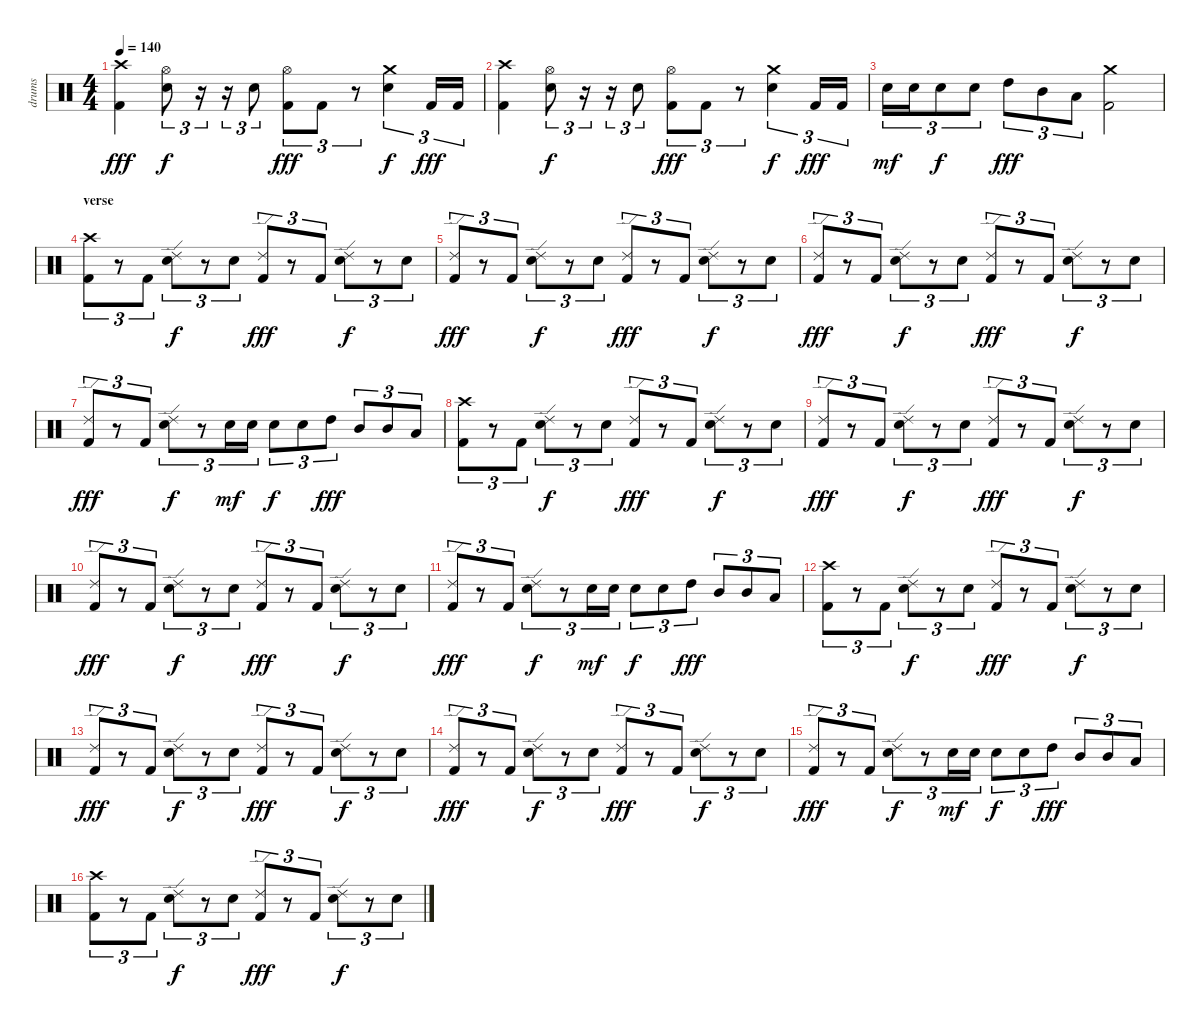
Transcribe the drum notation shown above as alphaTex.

\track ("drums" "drums") {instrument percussion}
\staff {score}
\articulation defaults
\ts (4 4)
\tempo 140
\clef neutral
\ks c
("Crash high (hit)" "Kick (hit) 2").4{dy fff} ("Hi-Hat (open)" "Snare (hit) 2").8{tu (3 2) dy f} r.16{tu (3 2)} r.16{tu (3 2)} "Snare (hit) 2".8{tu (3 2)} ("Hi-Hat (open)" "Kick (hit) 2").8{tu (3 2) dy fff} "Kick (hit) 2".8{tu (3 2)} r.8{tu (3 2)} ("Crash medium (hit)" "Snare (hit) 2").4{tu (3 2) dy f} "Kick (hit) 2".16{tu (3 2) dy fff} "Kick (hit) 2".16{tu (3 2)} |
("Crash high (hit)" "Kick (hit) 2").4 ("Hi-Hat (open)" "Snare (hit) 2").8{tu (3 2) dy f} r.16{tu (3 2)} r.16{tu (3 2)} "Snare (hit) 2".8{tu (3 2)} ("Hi-Hat (open)" "Kick (hit) 2").8{tu (3 2) dy fff} "Kick (hit) 2".8{tu (3 2)} r.8{tu (3 2)} ("Crash medium (hit)" "Snare (hit) 2").4{tu (3 2) dy f} "Kick (hit) 2".16{tu (3 2) dy fff} "Kick (hit) 2".16{tu (3 2)} |
"Snare (hit) 2".16{tu (3 2) dy mf} "Snare (hit) 2".16{tu (3 2)} "Snare (hit) 2".8{tu (3 2) dy f} "Snare (hit) 2".8{tu (3 2)} "High Tom (hit)".8{tu (3 2) dy fff} "Mid Tom (hit)".8{tu (3 2)} "Low Tom (hit)".8{tu (3 2)} ("Crash medium (hit)" "Kick (hit) 2").2 |
\section ("" "verse")
("Crash high (hit)" "Kick (hit) 2").8{tu (3 2)} r.8{tu (3 2)} "Kick (hit) 2".8{tu (3 2)} ("Ride (edge) 2" "Snare (hit) 2").8{tu (3 2) dy f} r.8{tu (3 2)} "Snare (hit) 2".8{tu (3 2)} ("Ride (edge) 2" "Kick (hit) 2").8{tu (3 2) dy fff} r.8{tu (3 2)} "Kick (hit) 2".8{tu (3 2)} ("Ride (edge) 2" "Snare (hit) 2").8{tu (3 2) dy f} r.8{tu (3 2)} "Snare (hit) 2".8{tu (3 2)} |
("Ride (edge) 2" "Kick (hit) 2").8{tu (3 2) dy fff} r.8{tu (3 2)} "Kick (hit) 2".8{tu (3 2)} ("Ride (edge) 2" "Snare (hit) 2").8{tu (3 2) dy f} r.8{tu (3 2)} "Snare (hit) 2".8{tu (3 2)} ("Ride (edge) 2" "Kick (hit) 2").8{tu (3 2) dy fff} r.8{tu (3 2)} "Kick (hit) 2".8{tu (3 2)} ("Ride (edge) 2" "Snare (hit) 2").8{tu (3 2) dy f} r.8{tu (3 2)} "Snare (hit) 2".8{tu (3 2)} |
("Ride (edge) 2" "Kick (hit) 2").8{tu (3 2) dy fff} r.8{tu (3 2)} "Kick (hit) 2".8{tu (3 2)} ("Ride (edge) 2" "Snare (hit) 2").8{tu (3 2) dy f} r.8{tu (3 2)} "Snare (hit) 2".8{tu (3 2)} ("Ride (edge) 2" "Kick (hit) 2").8{tu (3 2) dy fff} r.8{tu (3 2)} "Kick (hit) 2".8{tu (3 2)} ("Ride (edge) 2" "Snare (hit) 2").8{tu (3 2) dy f} r.8{tu (3 2)} "Snare (hit) 2".8{tu (3 2)} |
("Ride (edge) 2" "Kick (hit) 2").8{tu (3 2) dy fff} r.8{tu (3 2)} "Kick (hit) 2".8{tu (3 2)} ("Ride (edge) 2" "Snare (hit) 2").8{tu (3 2) dy f} r.8{tu (3 2)} "Snare (hit) 2".16{tu (3 2) dy mf} "Snare (hit) 2".16{tu (3 2)} "Snare (hit) 2".8{tu (3 2) dy f} "Snare (hit) 2".8{tu (3 2)} "High Tom (hit)".8{tu (3 2) dy fff} "Mid Tom (hit)".8{tu (3 2)} "Mid Tom (hit)".8{tu (3 2)} "Low Tom (hit)".8{tu (3 2)} |
("Crash high (hit)" "Kick (hit) 2").8{tu (3 2)} r.8{tu (3 2)} "Kick (hit) 2".8{tu (3 2)} ("Ride (edge) 2" "Snare (hit) 2").8{tu (3 2) dy f} r.8{tu (3 2)} "Snare (hit) 2".8{tu (3 2)} ("Ride (edge) 2" "Kick (hit) 2").8{tu (3 2) dy fff} r.8{tu (3 2)} "Kick (hit) 2".8{tu (3 2)} ("Ride (edge) 2" "Snare (hit) 2").8{tu (3 2) dy f} r.8{tu (3 2)} "Snare (hit) 2".8{tu (3 2)} |
("Ride (edge) 2" "Kick (hit) 2").8{tu (3 2) dy fff} r.8{tu (3 2)} "Kick (hit) 2".8{tu (3 2)} ("Ride (edge) 2" "Snare (hit) 2").8{tu (3 2) dy f} r.8{tu (3 2)} "Snare (hit) 2".8{tu (3 2)} ("Ride (edge) 2" "Kick (hit) 2").8{tu (3 2) dy fff} r.8{tu (3 2)} "Kick (hit) 2".8{tu (3 2)} ("Ride (edge) 2" "Snare (hit) 2").8{tu (3 2) dy f} r.8{tu (3 2)} "Snare (hit) 2".8{tu (3 2)} |
("Ride (edge) 2" "Kick (hit) 2").8{tu (3 2) dy fff} r.8{tu (3 2)} "Kick (hit) 2".8{tu (3 2)} ("Ride (edge) 2" "Snare (hit) 2").8{tu (3 2) dy f} r.8{tu (3 2)} "Snare (hit) 2".8{tu (3 2)} ("Ride (edge) 2" "Kick (hit) 2").8{tu (3 2) dy fff} r.8{tu (3 2)} "Kick (hit) 2".8{tu (3 2)} ("Ride (edge) 2" "Snare (hit) 2").8{tu (3 2) dy f} r.8{tu (3 2)} "Snare (hit) 2".8{tu (3 2)} |
("Ride (edge) 2" "Kick (hit) 2").8{tu (3 2) dy fff} r.8{tu (3 2)} "Kick (hit) 2".8{tu (3 2)} ("Ride (edge) 2" "Snare (hit) 2").8{tu (3 2) dy f} r.8{tu (3 2)} "Snare (hit) 2".16{tu (3 2) dy mf} "Snare (hit) 2".16{tu (3 2)} "Snare (hit) 2".8{tu (3 2) dy f} "Snare (hit) 2".8{tu (3 2)} "High Tom (hit)".8{tu (3 2) dy fff} "Mid Tom (hit)".8{tu (3 2)} "Mid Tom (hit)".8{tu (3 2)} "Low Tom (hit)".8{tu (3 2)} |
("Crash high (hit)" "Kick (hit) 2").8{tu (3 2)} r.8{tu (3 2)} "Kick (hit) 2".8{tu (3 2)} ("Ride (edge) 2" "Snare (hit) 2").8{tu (3 2) dy f} r.8{tu (3 2)} "Snare (hit) 2".8{tu (3 2)} ("Ride (edge) 2" "Kick (hit) 2").8{tu (3 2) dy fff} r.8{tu (3 2)} "Kick (hit) 2".8{tu (3 2)} ("Ride (edge) 2" "Snare (hit) 2").8{tu (3 2) dy f} r.8{tu (3 2)} "Snare (hit) 2".8{tu (3 2)} |
("Ride (edge) 2" "Kick (hit) 2").8{tu (3 2) dy fff} r.8{tu (3 2)} "Kick (hit) 2".8{tu (3 2)} ("Ride (edge) 2" "Snare (hit) 2").8{tu (3 2) dy f} r.8{tu (3 2)} "Snare (hit) 2".8{tu (3 2)} ("Ride (edge) 2" "Kick (hit) 2").8{tu (3 2) dy fff} r.8{tu (3 2)} "Kick (hit) 2".8{tu (3 2)} ("Ride (edge) 2" "Snare (hit) 2").8{tu (3 2) dy f} r.8{tu (3 2)} "Snare (hit) 2".8{tu (3 2)} |
("Ride (edge) 2" "Kick (hit) 2").8{tu (3 2) dy fff} r.8{tu (3 2)} "Kick (hit) 2".8{tu (3 2)} ("Ride (edge) 2" "Snare (hit) 2").8{tu (3 2) dy f} r.8{tu (3 2)} "Snare (hit) 2".8{tu (3 2)} ("Ride (edge) 2" "Kick (hit) 2").8{tu (3 2) dy fff} r.8{tu (3 2)} "Kick (hit) 2".8{tu (3 2)} ("Ride (edge) 2" "Snare (hit) 2").8{tu (3 2) dy f} r.8{tu (3 2)} "Snare (hit) 2".8{tu (3 2)} |
("Ride (edge) 2" "Kick (hit) 2").8{tu (3 2) dy fff} r.8{tu (3 2)} "Kick (hit) 2".8{tu (3 2)} ("Ride (edge) 2" "Snare (hit) 2").8{tu (3 2) dy f} r.8{tu (3 2)} "Snare (hit) 2".16{tu (3 2) dy mf} "Snare (hit) 2".16{tu (3 2)} "Snare (hit) 2".8{tu (3 2) dy f} "Snare (hit) 2".8{tu (3 2)} "High Tom (hit)".8{tu (3 2) dy fff} "Mid Tom (hit)".8{tu (3 2)} "Mid Tom (hit)".8{tu (3 2)} "Low Tom (hit)".8{tu (3 2)} |
("Crash high (hit)" "Kick (hit) 2").8{tu (3 2)} r.8{tu (3 2)} "Kick (hit) 2".8{tu (3 2)} ("Ride (edge) 2" "Snare (hit) 2").8{tu (3 2) dy f} r.8{tu (3 2)} "Snare (hit) 2".8{tu (3 2)} ("Ride (edge) 2" "Kick (hit) 2").8{tu (3 2) dy fff} r.8{tu (3 2)} "Kick (hit) 2".8{tu (3 2)} ("Ride (edge) 2" "Snare (hit) 2").8{tu (3 2) dy f} r.8{tu (3 2)} "Snare (hit) 2".8{tu (3 2)}
